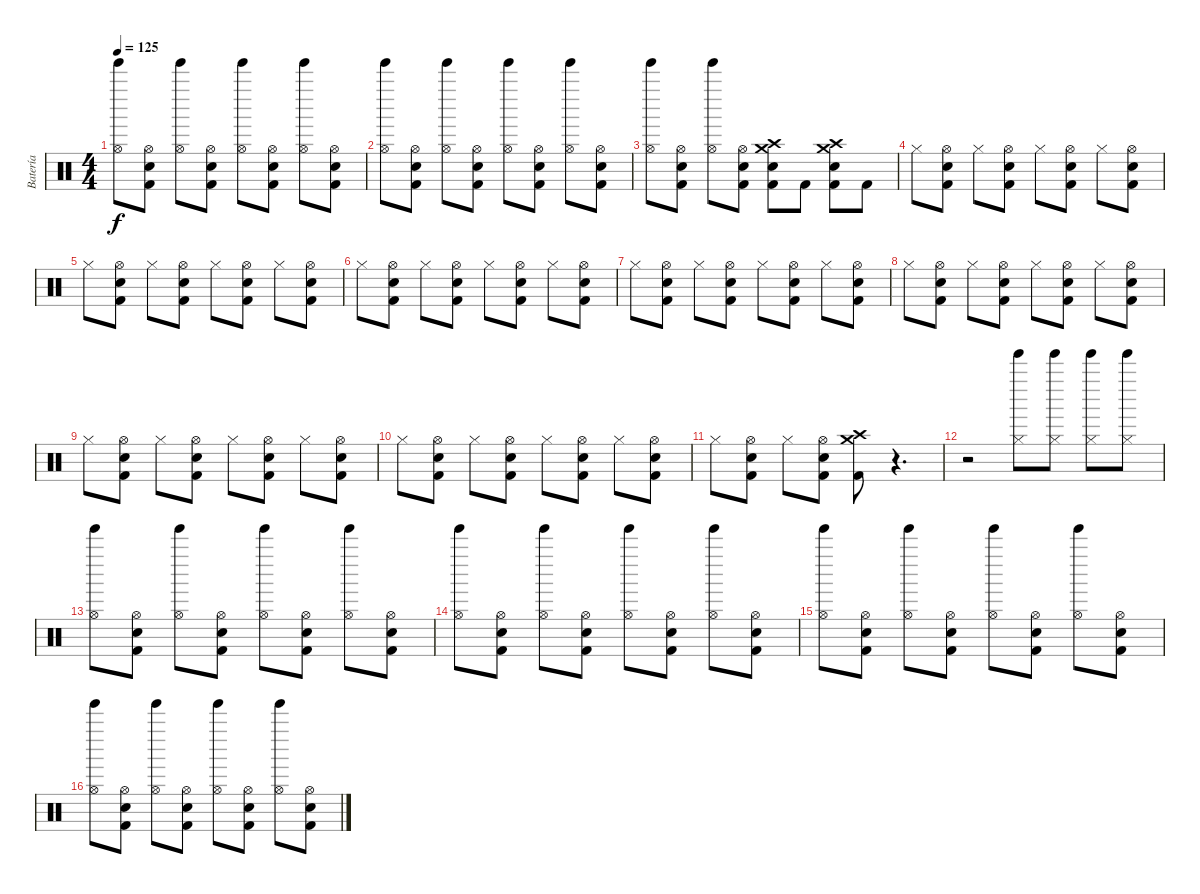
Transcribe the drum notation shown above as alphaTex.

\track ("Batería" "Batería") {instrument percussion}
\staff {score}
\articulation defaults
\ts (4 4)
\tempo 125
\clef neutral
\ks c
("Tinkle Bell (hit)" "Hi-Hat (open)").8{dy f} ("Snare (hit) 2" "Hi-Hat (open)" "Kick (hit) 2").8 ("Tinkle Bell (hit)" "Hi-Hat (open)").8 ("Snare (hit) 2" "Hi-Hat (open)" "Kick (hit) 2").8 ("Tinkle Bell (hit)" "Hi-Hat (open)").8 ("Snare (hit) 2" "Hi-Hat (open)" "Kick (hit) 2").8 ("Tinkle Bell (hit)" "Hi-Hat (open)").8 ("Snare (hit) 2" "Hi-Hat (open)" "Kick (hit) 2").8 |
("Tinkle Bell (hit)" "Hi-Hat (open)").8 ("Snare (hit) 2" "Hi-Hat (open)" "Kick (hit) 2").8 ("Tinkle Bell (hit)" "Hi-Hat (open)").8 ("Snare (hit) 2" "Hi-Hat (open)" "Kick (hit) 2").8 ("Tinkle Bell (hit)" "Hi-Hat (open)").8 ("Snare (hit) 2" "Hi-Hat (open)" "Kick (hit) 2").8 ("Tinkle Bell (hit)" "Hi-Hat (open)").8 ("Snare (hit) 2" "Hi-Hat (open)" "Kick (hit) 2").8 |
("Tinkle Bell (hit)" "Hi-Hat (open)").8 ("Snare (hit) 2" "Hi-Hat (open)" "Kick (hit) 2").8 ("Tinkle Bell (hit)" "Hi-Hat (open)").8 ("Snare (hit) 2" "Hi-Hat (open)" "Kick (hit) 2").8 ("Crash medium (hit)" "Crash high (hit)" "Snare (hit) 2" "Kick (hit) 2").8 "Kick (hit) 2".8 ("Crash medium (hit)" "Crash high (hit)" "Snare (hit) 2" "Kick (hit) 2").8 "Kick (hit) 2".8 |
"Hi-Hat (closed)".8 ("Snare (hit) 2" "Hi-Hat (open)" "Kick (hit) 2").8 "Hi-Hat (closed)".8 ("Snare (hit) 2" "Hi-Hat (open)" "Kick (hit) 2").8 "Hi-Hat (closed)".8 ("Snare (hit) 2" "Hi-Hat (open)" "Kick (hit) 2").8 "Hi-Hat (closed)".8 ("Snare (hit) 2" "Hi-Hat (open)" "Kick (hit) 2").8 |
"Hi-Hat (closed)".8 ("Snare (hit) 2" "Hi-Hat (open)" "Kick (hit) 2").8 "Hi-Hat (closed)".8 ("Snare (hit) 2" "Hi-Hat (open)" "Kick (hit) 2").8 "Hi-Hat (closed)".8 ("Snare (hit) 2" "Hi-Hat (open)" "Kick (hit) 2").8 "Hi-Hat (closed)".8 ("Snare (hit) 2" "Hi-Hat (open)" "Kick (hit) 2").8 |
"Hi-Hat (closed)".8 ("Snare (hit) 2" "Hi-Hat (open)" "Kick (hit) 2").8 "Hi-Hat (closed)".8 ("Snare (hit) 2" "Hi-Hat (open)" "Kick (hit) 2").8 "Hi-Hat (closed)".8 ("Snare (hit) 2" "Hi-Hat (open)" "Kick (hit) 2").8 "Hi-Hat (closed)".8 ("Snare (hit) 2" "Hi-Hat (open)" "Kick (hit) 2").8 |
"Hi-Hat (closed)".8 ("Snare (hit) 2" "Hi-Hat (open)" "Kick (hit) 2").8 "Hi-Hat (closed)".8 ("Snare (hit) 2" "Hi-Hat (open)" "Kick (hit) 2").8 "Hi-Hat (closed)".8 ("Snare (hit) 2" "Hi-Hat (open)" "Kick (hit) 2").8 "Hi-Hat (closed)".8 ("Snare (hit) 2" "Hi-Hat (open)" "Kick (hit) 2").8 |
"Hi-Hat (closed)".8 ("Snare (hit) 2" "Hi-Hat (open)" "Kick (hit) 2").8 "Hi-Hat (closed)".8 ("Snare (hit) 2" "Hi-Hat (open)" "Kick (hit) 2").8 "Hi-Hat (closed)".8 ("Snare (hit) 2" "Hi-Hat (open)" "Kick (hit) 2").8 "Hi-Hat (closed)".8 ("Snare (hit) 2" "Hi-Hat (open)" "Kick (hit) 2").8 |
"Hi-Hat (closed)".8 ("Snare (hit) 2" "Hi-Hat (open)" "Kick (hit) 2").8 "Hi-Hat (closed)".8 ("Snare (hit) 2" "Hi-Hat (open)" "Kick (hit) 2").8 "Hi-Hat (closed)".8 ("Snare (hit) 2" "Hi-Hat (open)" "Kick (hit) 2").8 "Hi-Hat (closed)".8 ("Snare (hit) 2" "Hi-Hat (open)" "Kick (hit) 2").8 |
"Hi-Hat (closed)".8 ("Snare (hit) 2" "Hi-Hat (open)" "Kick (hit) 2").8 "Hi-Hat (closed)".8 ("Snare (hit) 2" "Hi-Hat (open)" "Kick (hit) 2").8 "Hi-Hat (closed)".8 ("Snare (hit) 2" "Hi-Hat (open)" "Kick (hit) 2").8 "Hi-Hat (closed)".8 ("Snare (hit) 2" "Hi-Hat (open)" "Kick (hit) 2").8 |
"Hi-Hat (closed)".8 ("Snare (hit) 2" "Hi-Hat (open)" "Kick (hit) 2").8 "Hi-Hat (closed)".8 ("Snare (hit) 2" "Hi-Hat (open)" "Kick (hit) 2").8 ("Crash medium (hit)" "Crash high (hit)" "Kick (hit) 2").8 r.4{d} |
r.2 ("Tinkle Bell (hit)" "Hi-Hat (closed)").8 ("Tinkle Bell (hit)" "Hi-Hat (closed)").8 ("Tinkle Bell (hit)" "Hi-Hat (closed)").8 ("Tinkle Bell (hit)" "Hi-Hat (closed)").8 |
("Tinkle Bell (hit)" "Hi-Hat (open)").8 ("Snare (hit) 2" "Hi-Hat (open)" "Kick (hit) 2").8 ("Tinkle Bell (hit)" "Hi-Hat (open)").8 ("Snare (hit) 2" "Hi-Hat (open)" "Kick (hit) 2").8 ("Tinkle Bell (hit)" "Hi-Hat (open)").8 ("Snare (hit) 2" "Hi-Hat (open)" "Kick (hit) 2").8 ("Tinkle Bell (hit)" "Hi-Hat (open)").8 ("Snare (hit) 2" "Hi-Hat (open)" "Kick (hit) 2").8 |
("Tinkle Bell (hit)" "Hi-Hat (open)").8 ("Snare (hit) 2" "Hi-Hat (open)" "Kick (hit) 2").8 ("Tinkle Bell (hit)" "Hi-Hat (open)").8 ("Snare (hit) 2" "Hi-Hat (open)" "Kick (hit) 2").8 ("Tinkle Bell (hit)" "Hi-Hat (open)").8 ("Snare (hit) 2" "Hi-Hat (open)" "Kick (hit) 2").8 ("Tinkle Bell (hit)" "Hi-Hat (open)").8 ("Snare (hit) 2" "Hi-Hat (open)" "Kick (hit) 2").8 |
("Tinkle Bell (hit)" "Hi-Hat (open)").8 ("Snare (hit) 2" "Hi-Hat (open)" "Kick (hit) 2").8 ("Tinkle Bell (hit)" "Hi-Hat (open)").8 ("Snare (hit) 2" "Hi-Hat (open)" "Kick (hit) 2").8 ("Tinkle Bell (hit)" "Hi-Hat (open)").8 ("Snare (hit) 2" "Hi-Hat (open)" "Kick (hit) 2").8 ("Tinkle Bell (hit)" "Hi-Hat (open)").8 ("Snare (hit) 2" "Hi-Hat (open)" "Kick (hit) 2").8 |
("Tinkle Bell (hit)" "Hi-Hat (open)").8 ("Snare (hit) 2" "Hi-Hat (open)" "Kick (hit) 2").8 ("Tinkle Bell (hit)" "Hi-Hat (open)").8 ("Snare (hit) 2" "Hi-Hat (open)" "Kick (hit) 2").8 ("Tinkle Bell (hit)" "Hi-Hat (open)").8 ("Snare (hit) 2" "Hi-Hat (open)" "Kick (hit) 2").8 ("Tinkle Bell (hit)" "Hi-Hat (open)").8 ("Snare (hit) 2" "Hi-Hat (open)" "Kick (hit) 2").8
